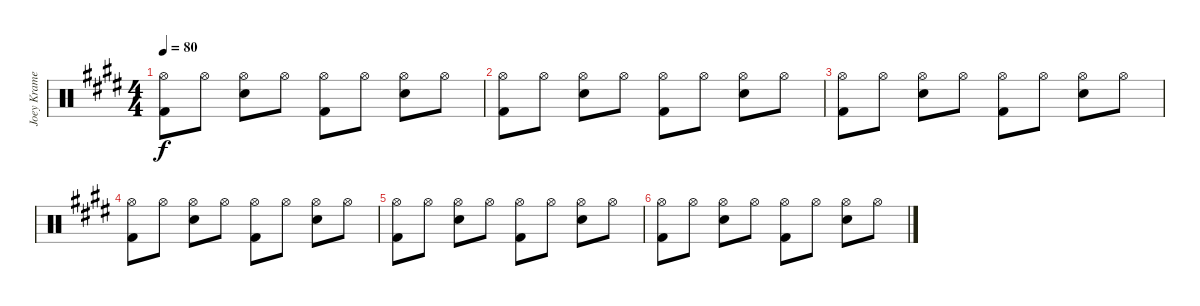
\track ("Joey Kramer (Percussion)" "Joey Krame") {instrument percussion}
\staff {score}
\articulation defaults
\ts (4 4)
\tempo 80
\clef neutral
\ks e
("Hi-Hat (open)" "Kick (hit) 2").8{dy f} "Hi-Hat (open)".8 ("Hi-Hat (open)" "Electric Snare (hit)").8 "Hi-Hat (open)".8 ("Hi-Hat (open)" "Kick (hit) 2").8 "Hi-Hat (open)".8 ("Hi-Hat (open)" "Electric Snare (hit)").8 "Hi-Hat (open)".8 |
("Hi-Hat (open)" "Kick (hit) 2").8 "Hi-Hat (open)".8 ("Hi-Hat (open)" "Electric Snare (hit)").8 "Hi-Hat (open)".8 ("Hi-Hat (open)" "Kick (hit) 2").8 "Hi-Hat (open)".8 ("Hi-Hat (open)" "Electric Snare (hit)").8 "Hi-Hat (open)".8 |
("Hi-Hat (open)" "Kick (hit) 2").8 "Hi-Hat (open)".8 ("Hi-Hat (open)" "Electric Snare (hit)").8 "Hi-Hat (open)".8 ("Hi-Hat (open)" "Kick (hit) 2").8 "Hi-Hat (open)".8 ("Hi-Hat (open)" "Electric Snare (hit)").8 "Hi-Hat (open)".8 |
("Hi-Hat (open)" "Kick (hit) 2").8 "Hi-Hat (open)".8 ("Hi-Hat (open)" "Electric Snare (hit)").8 "Hi-Hat (open)".8 ("Hi-Hat (open)" "Kick (hit) 2").8 "Hi-Hat (open)".8 ("Hi-Hat (open)" "Electric Snare (hit)").8 "Hi-Hat (open)".8 |
("Hi-Hat (open)" "Kick (hit) 2").8 "Hi-Hat (open)".8 ("Hi-Hat (open)" "Electric Snare (hit)").8 "Hi-Hat (open)".8 ("Hi-Hat (open)" "Kick (hit) 2").8 "Hi-Hat (open)".8 ("Hi-Hat (open)" "Electric Snare (hit)").8 "Hi-Hat (open)".8 |
("Hi-Hat (open)" "Kick (hit) 2").8 "Hi-Hat (open)".8 ("Hi-Hat (open)" "Electric Snare (hit)").8 "Hi-Hat (open)".8 ("Hi-Hat (open)" "Kick (hit) 2").8 "Hi-Hat (open)".8 ("Hi-Hat (open)" "Electric Snare (hit)").8 "Hi-Hat (open)".8
